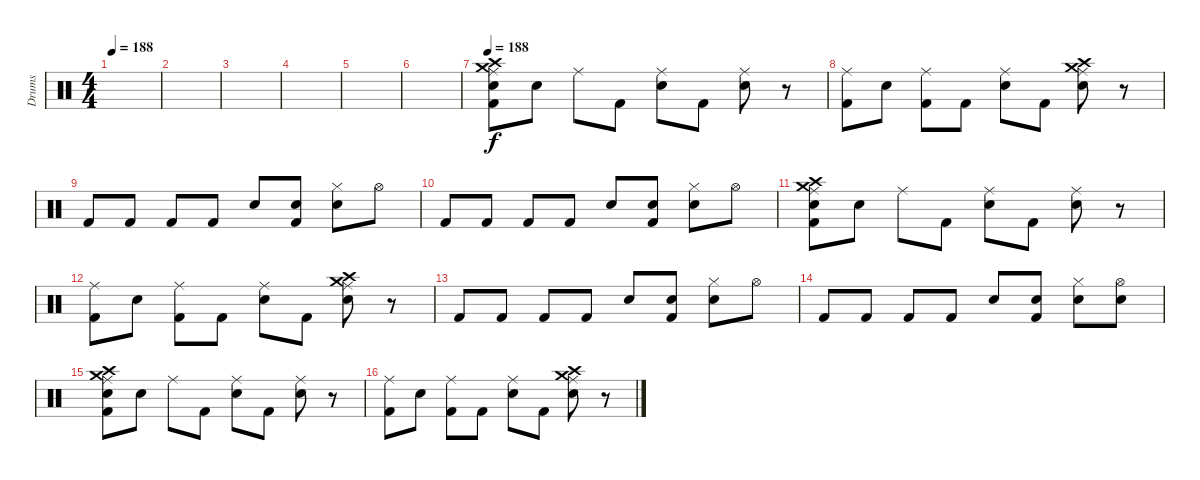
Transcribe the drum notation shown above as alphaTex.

\track ("Drums" "Drums") {instrument percussion}
\staff {score}
\articulation defaults
\ts (4 4)
\tempo 188
\tempo 170
\tempo 188
\clef neutral
\ks c
|
|
|
|
|
|
\tempo 188
("Crash medium (hit)" "Crash high (hit)" "Ride (middle)" "Snare (hit) 2" "Kick (hit) 2").8 "Snare (hit) 2".8 "Ride (middle)".8 "Kick (hit) 2".8 ("Ride (middle)" "Snare (hit) 2").8 "Kick (hit) 2".8 ("Ride (middle)" "Snare (hit) 2").8 r.8 |
("Ride (middle)" "Kick (hit) 2").8 "Snare (hit) 2".8 ("Ride (middle)" "Kick (hit) 2").8 "Kick (hit) 2".8 ("Ride (middle)" "Snare (hit) 2").8 "Kick (hit) 2".8 ("Crash medium (hit)" "Crash high (hit)" "Ride (middle)" "Snare (hit) 2").8 r.8 |
"Kick (hit) 2".8 "Kick (hit) 2".8 "Kick (hit) 2".8 "Kick (hit) 2".8 "Snare (hit) 2".8 ("Snare (hit) 2" "Kick (hit) 2").8 ("Hi-Hat (closed)" "Snare (hit) 2").8 "Hi-Hat (open)".8 |
"Kick (hit) 2".8 "Kick (hit) 2".8 "Kick (hit) 2".8 "Kick (hit) 2".8 "Snare (hit) 2".8 ("Snare (hit) 2" "Kick (hit) 2").8 ("Hi-Hat (closed)" "Snare (hit) 2").8 "Hi-Hat (open)".8 |
("Crash medium (hit)" "Crash high (hit)" "Ride (middle)" "Snare (hit) 2" "Kick (hit) 2").8 "Snare (hit) 2".8 "Ride (middle)".8 "Kick (hit) 2".8 ("Ride (middle)" "Snare (hit) 2").8 "Kick (hit) 2".8 ("Ride (middle)" "Snare (hit) 2").8 r.8 |
("Ride (middle)" "Kick (hit) 2").8 "Snare (hit) 2".8 ("Ride (middle)" "Kick (hit) 2").8 "Kick (hit) 2".8 ("Ride (middle)" "Snare (hit) 2").8 "Kick (hit) 2".8 ("Crash medium (hit)" "Crash high (hit)" "Ride (middle)" "Snare (hit) 2").8 r.8 |
"Kick (hit) 2".8 "Kick (hit) 2".8 "Kick (hit) 2".8 "Kick (hit) 2".8 "Snare (hit) 2".8 ("Snare (hit) 2" "Kick (hit) 2").8 ("Hi-Hat (closed)" "Snare (hit) 2").8 "Hi-Hat (open)".8 |
"Kick (hit) 2".8 "Kick (hit) 2".8 "Kick (hit) 2".8 "Kick (hit) 2".8 "Snare (hit) 2".8 ("Snare (hit) 2" "Kick (hit) 2").8 ("Hi-Hat (closed)" "Snare (hit) 2").8 ("Hi-Hat (open)" "Snare (hit) 2").8 |
("Crash medium (hit)" "Crash high (hit)" "Ride (middle)" "Snare (hit) 2" "Kick (hit) 2").8 "Snare (hit) 2".8 "Ride (middle)".8 "Kick (hit) 2".8 ("Ride (middle)" "Snare (hit) 2").8 "Kick (hit) 2".8 ("Ride (middle)" "Snare (hit) 2").8 r.8 |
("Ride (middle)" "Kick (hit) 2").8 "Snare (hit) 2".8 ("Ride (middle)" "Kick (hit) 2").8 "Kick (hit) 2".8 ("Ride (middle)" "Snare (hit) 2").8 "Kick (hit) 2".8 ("Crash medium (hit)" "Crash high (hit)" "Ride (middle)" "Snare (hit) 2").8 r.8
